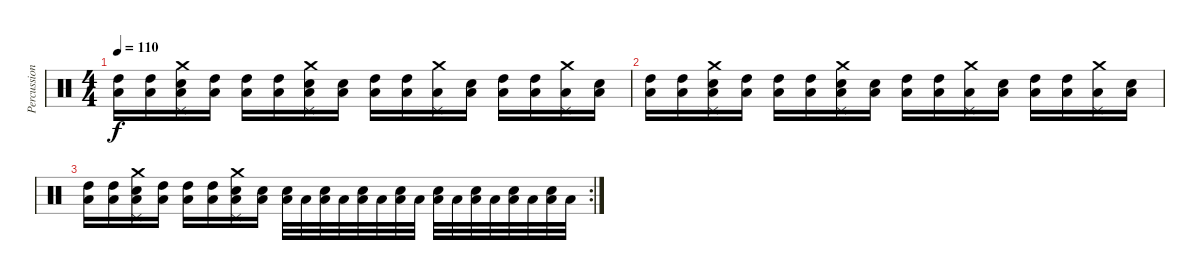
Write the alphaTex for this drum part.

\track ("Percussion" "Percussion") {instrument percussion}
\staff {score}
\articulation defaults
\ts (4 4)
\tempo 110
\clef neutral
\ks c
("High Tom (hit)" "Low Tom (hit)").16{dy f} ("High Tom (hit)" "Low Tom (hit)").16 ("Pedal Hi-Hat (hit)" "Crash medium (hit)" "Snare (hit) 2" "Low Tom (hit)").16 ("High Tom (hit)" "Low Tom (hit)").16 ("High Tom (hit)" "Low Tom (hit)").16 ("High Tom (hit)" "Low Tom (hit)").16 ("Pedal Hi-Hat (hit)" "Crash medium (hit)" "Snare (hit) 2" "Low Tom (hit)").16 ("Snare (hit) 2" "Low Tom (hit)").16 ("High Tom (hit)" "Low Tom (hit)").16 ("High Tom (hit)" "Low Tom (hit)").16 ("Pedal Hi-Hat (hit)" "Crash medium (hit)" "Low Tom (hit)").16 ("Snare (hit) 2" "Low Tom (hit)").16 ("High Tom (hit)" "Low Tom (hit)").16 ("High Tom (hit)" "Low Tom (hit)").16 ("Pedal Hi-Hat (hit)" "Crash medium (hit)" "Low Tom (hit)").16 ("Snare (hit) 2" "Low Tom (hit)").16 |
("High Tom (hit)" "Low Tom (hit)").16 ("High Tom (hit)" "Low Tom (hit)").16 ("Pedal Hi-Hat (hit)" "Crash medium (hit)" "Snare (hit) 2" "Low Tom (hit)").16 ("High Tom (hit)" "Low Tom (hit)").16 ("High Tom (hit)" "Low Tom (hit)").16 ("High Tom (hit)" "Low Tom (hit)").16 ("Pedal Hi-Hat (hit)" "Crash medium (hit)" "Snare (hit) 2" "Low Tom (hit)").16 ("Snare (hit) 2" "Low Tom (hit)").16 ("High Tom (hit)" "Low Tom (hit)").16 ("High Tom (hit)" "Low Tom (hit)").16 ("Pedal Hi-Hat (hit)" "Crash medium (hit)" "Low Tom (hit)").16 ("Snare (hit) 2" "Low Tom (hit)").16 ("High Tom (hit)" "Low Tom (hit)").16 ("High Tom (hit)" "Low Tom (hit)").16 ("Pedal Hi-Hat (hit)" "Crash medium (hit)" "Low Tom (hit)").16 ("Snare (hit) 2" "Low Tom (hit)").16 |
\rc 2
("High Tom (hit)" "Low Tom (hit)").16 ("High Tom (hit)" "Low Tom (hit)").16 ("Pedal Hi-Hat (hit)" "Crash medium (hit)" "Snare (hit) 2" "Low Tom (hit)").16 ("High Tom (hit)" "Low Tom (hit)").16 ("High Tom (hit)" "Low Tom (hit)").16 ("High Tom (hit)" "Low Tom (hit)").16 ("Pedal Hi-Hat (hit)" "Crash medium (hit)" "Snare (hit) 2" "Low Tom (hit)").16 ("Snare (hit) 2" "Low Tom (hit)").16 ("Snare (hit) 2" "Low Tom (hit)").32 "Low Tom (hit)".32 ("Snare (hit) 2" "Low Tom (hit)").32 "Low Tom (hit)".32 ("Snare (hit) 2" "Low Tom (hit)").32 "Low Tom (hit)".32 ("Snare (hit) 2" "Low Tom (hit)").32 "Low Tom (hit)".32 ("Snare (hit) 2" "Low Tom (hit)").32 "Low Tom (hit)".32 ("Snare (hit) 2" "Low Tom (hit)").32 "Low Tom (hit)".32 ("Snare (hit) 2" "Low Tom (hit)").32 "Low Tom (hit)".32 ("Snare (hit) 2" "Low Tom (hit)").32 "Low Tom (hit)".32
